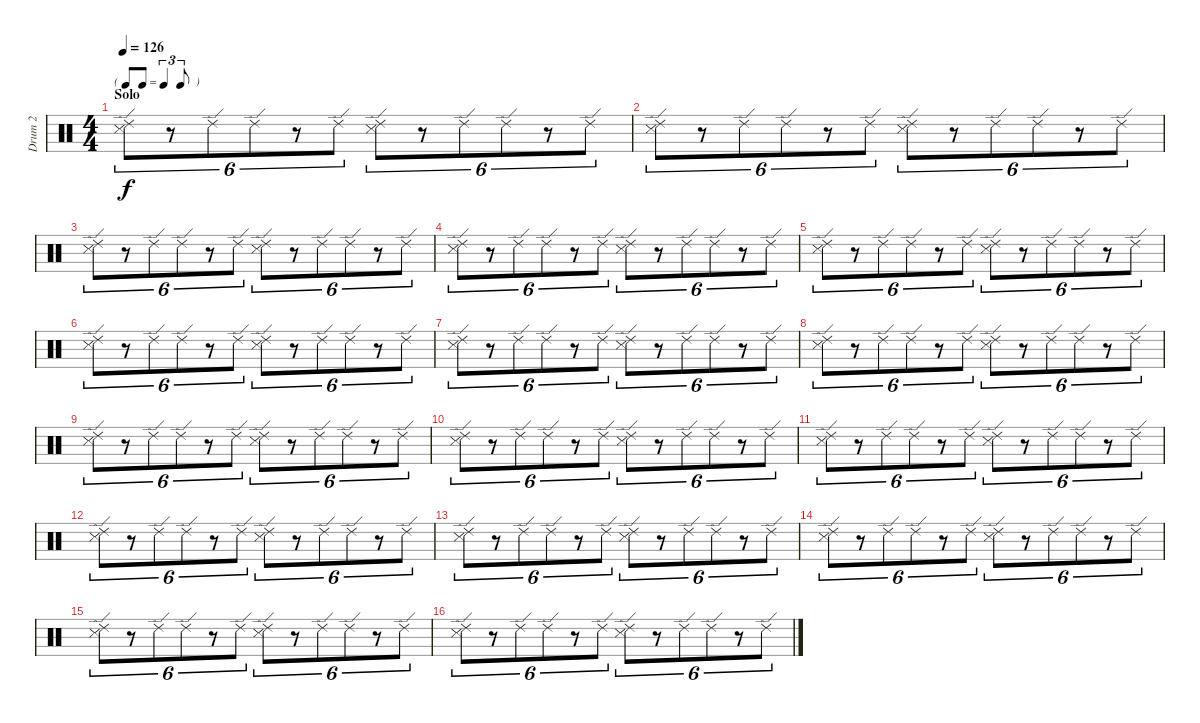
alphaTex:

\track ("Drum 2" "Drum 2") {instrument percussion}
\staff {score}
\articulation defaults
\ts (4 4)
\tf triplet8th
\section ("" "Solo")
\tempo 126
\clef neutral
\ks c
("Ride (edge) 2" "Snare (side stick) 3").8{tu (6 4) dy f} r.8{tu (6 4)} "Ride (edge) 2".8{tu (6 4)} "Ride (edge) 2".8{tu (6 4)} r.8{tu (6 4)} "Ride (edge) 2".8{tu (6 4)} ("Ride (edge) 2" "Snare (side stick) 3").8{tu (6 4)} r.8{tu (6 4)} "Ride (edge) 2".8{tu (6 4)} "Ride (edge) 2".8{tu (6 4)} r.8{tu (6 4)} "Ride (edge) 2".8{tu (6 4)} |
("Ride (edge) 2" "Snare (side stick) 3").8{tu (6 4)} r.8{tu (6 4)} "Ride (edge) 2".8{tu (6 4)} "Ride (edge) 2".8{tu (6 4)} r.8{tu (6 4)} "Ride (edge) 2".8{tu (6 4)} ("Ride (edge) 2" "Snare (side stick) 3").8{tu (6 4)} r.8{tu (6 4)} "Ride (edge) 2".8{tu (6 4)} "Ride (edge) 2".8{tu (6 4)} r.8{tu (6 4)} "Ride (edge) 2".8{tu (6 4)} |
("Ride (edge) 2" "Snare (side stick) 3").8{tu (6 4)} r.8{tu (6 4)} "Ride (edge) 2".8{tu (6 4)} "Ride (edge) 2".8{tu (6 4)} r.8{tu (6 4)} "Ride (edge) 2".8{tu (6 4)} ("Ride (edge) 2" "Snare (side stick) 3").8{tu (6 4)} r.8{tu (6 4)} "Ride (edge) 2".8{tu (6 4)} "Ride (edge) 2".8{tu (6 4)} r.8{tu (6 4)} "Ride (edge) 2".8{tu (6 4)} |
("Ride (edge) 2" "Snare (side stick) 3").8{tu (6 4)} r.8{tu (6 4)} "Ride (edge) 2".8{tu (6 4)} "Ride (edge) 2".8{tu (6 4)} r.8{tu (6 4)} "Ride (edge) 2".8{tu (6 4)} ("Ride (edge) 2" "Snare (side stick) 3").8{tu (6 4)} r.8{tu (6 4)} "Ride (edge) 2".8{tu (6 4)} "Ride (edge) 2".8{tu (6 4)} r.8{tu (6 4)} "Ride (edge) 2".8{tu (6 4)} |
("Ride (edge) 2" "Snare (side stick) 3").8{tu (6 4)} r.8{tu (6 4)} "Ride (edge) 2".8{tu (6 4)} "Ride (edge) 2".8{tu (6 4)} r.8{tu (6 4)} "Ride (edge) 2".8{tu (6 4)} ("Ride (edge) 2" "Snare (side stick) 3").8{tu (6 4)} r.8{tu (6 4)} "Ride (edge) 2".8{tu (6 4)} "Ride (edge) 2".8{tu (6 4)} r.8{tu (6 4)} "Ride (edge) 2".8{tu (6 4)} |
("Ride (edge) 2" "Snare (side stick) 3").8{tu (6 4)} r.8{tu (6 4)} "Ride (edge) 2".8{tu (6 4)} "Ride (edge) 2".8{tu (6 4)} r.8{tu (6 4)} "Ride (edge) 2".8{tu (6 4)} ("Ride (edge) 2" "Snare (side stick) 3").8{tu (6 4)} r.8{tu (6 4)} "Ride (edge) 2".8{tu (6 4)} "Ride (edge) 2".8{tu (6 4)} r.8{tu (6 4)} "Ride (edge) 2".8{tu (6 4)} |
("Ride (edge) 2" "Snare (side stick) 3").8{tu (6 4)} r.8{tu (6 4)} "Ride (edge) 2".8{tu (6 4)} "Ride (edge) 2".8{tu (6 4)} r.8{tu (6 4)} "Ride (edge) 2".8{tu (6 4)} ("Ride (edge) 2" "Snare (side stick) 3").8{tu (6 4)} r.8{tu (6 4)} "Ride (edge) 2".8{tu (6 4)} "Ride (edge) 2".8{tu (6 4)} r.8{tu (6 4)} "Ride (edge) 2".8{tu (6 4)} |
("Ride (edge) 2" "Snare (side stick) 3").8{tu (6 4)} r.8{tu (6 4)} "Ride (edge) 2".8{tu (6 4)} "Ride (edge) 2".8{tu (6 4)} r.8{tu (6 4)} "Ride (edge) 2".8{tu (6 4)} ("Ride (edge) 2" "Snare (side stick) 3").8{tu (6 4)} r.8{tu (6 4)} "Ride (edge) 2".8{tu (6 4)} "Ride (edge) 2".8{tu (6 4)} r.8{tu (6 4)} "Ride (edge) 2".8{tu (6 4)} |
("Ride (edge) 2" "Snare (side stick) 3").8{tu (6 4)} r.8{tu (6 4)} "Ride (edge) 2".8{tu (6 4)} "Ride (edge) 2".8{tu (6 4)} r.8{tu (6 4)} "Ride (edge) 2".8{tu (6 4)} ("Ride (edge) 2" "Snare (side stick) 3").8{tu (6 4)} r.8{tu (6 4)} "Ride (edge) 2".8{tu (6 4)} "Ride (edge) 2".8{tu (6 4)} r.8{tu (6 4)} "Ride (edge) 2".8{tu (6 4)} |
("Ride (edge) 2" "Snare (side stick) 3").8{tu (6 4)} r.8{tu (6 4)} "Ride (edge) 2".8{tu (6 4)} "Ride (edge) 2".8{tu (6 4)} r.8{tu (6 4)} "Ride (edge) 2".8{tu (6 4)} ("Ride (edge) 2" "Snare (side stick) 3").8{tu (6 4)} r.8{tu (6 4)} "Ride (edge) 2".8{tu (6 4)} "Ride (edge) 2".8{tu (6 4)} r.8{tu (6 4)} "Ride (edge) 2".8{tu (6 4)} |
("Ride (edge) 2" "Snare (side stick) 3").8{tu (6 4)} r.8{tu (6 4)} "Ride (edge) 2".8{tu (6 4)} "Ride (edge) 2".8{tu (6 4)} r.8{tu (6 4)} "Ride (edge) 2".8{tu (6 4)} ("Ride (edge) 2" "Snare (side stick) 3").8{tu (6 4)} r.8{tu (6 4)} "Ride (edge) 2".8{tu (6 4)} "Ride (edge) 2".8{tu (6 4)} r.8{tu (6 4)} "Ride (edge) 2".8{tu (6 4)} |
("Ride (edge) 2" "Snare (side stick) 3").8{tu (6 4)} r.8{tu (6 4)} "Ride (edge) 2".8{tu (6 4)} "Ride (edge) 2".8{tu (6 4)} r.8{tu (6 4)} "Ride (edge) 2".8{tu (6 4)} ("Ride (edge) 2" "Snare (side stick) 3").8{tu (6 4)} r.8{tu (6 4)} "Ride (edge) 2".8{tu (6 4)} "Ride (edge) 2".8{tu (6 4)} r.8{tu (6 4)} "Ride (edge) 2".8{tu (6 4)} |
("Ride (edge) 2" "Snare (side stick) 3").8{tu (6 4)} r.8{tu (6 4)} "Ride (edge) 2".8{tu (6 4)} "Ride (edge) 2".8{tu (6 4)} r.8{tu (6 4)} "Ride (edge) 2".8{tu (6 4)} ("Ride (edge) 2" "Snare (side stick) 3").8{tu (6 4)} r.8{tu (6 4)} "Ride (edge) 2".8{tu (6 4)} "Ride (edge) 2".8{tu (6 4)} r.8{tu (6 4)} "Ride (edge) 2".8{tu (6 4)} |
("Ride (edge) 2" "Snare (side stick) 3").8{tu (6 4)} r.8{tu (6 4)} "Ride (edge) 2".8{tu (6 4)} "Ride (edge) 2".8{tu (6 4)} r.8{tu (6 4)} "Ride (edge) 2".8{tu (6 4)} ("Ride (edge) 2" "Snare (side stick) 3").8{tu (6 4)} r.8{tu (6 4)} "Ride (edge) 2".8{tu (6 4)} "Ride (edge) 2".8{tu (6 4)} r.8{tu (6 4)} "Ride (edge) 2".8{tu (6 4)} |
("Ride (edge) 2" "Snare (side stick) 3").8{tu (6 4)} r.8{tu (6 4)} "Ride (edge) 2".8{tu (6 4)} "Ride (edge) 2".8{tu (6 4)} r.8{tu (6 4)} "Ride (edge) 2".8{tu (6 4)} ("Ride (edge) 2" "Snare (side stick) 3").8{tu (6 4)} r.8{tu (6 4)} "Ride (edge) 2".8{tu (6 4)} "Ride (edge) 2".8{tu (6 4)} r.8{tu (6 4)} "Ride (edge) 2".8{tu (6 4)} |
("Ride (edge) 2" "Snare (side stick) 3").8{tu (6 4)} r.8{tu (6 4)} "Ride (edge) 2".8{tu (6 4)} "Ride (edge) 2".8{tu (6 4)} r.8{tu (6 4)} "Ride (edge) 2".8{tu (6 4)} ("Ride (edge) 2" "Snare (side stick) 3").8{tu (6 4)} r.8{tu (6 4)} "Ride (edge) 2".8{tu (6 4)} "Ride (edge) 2".8{tu (6 4)} r.8{tu (6 4)} "Ride (edge) 2".8{tu (6 4)}
